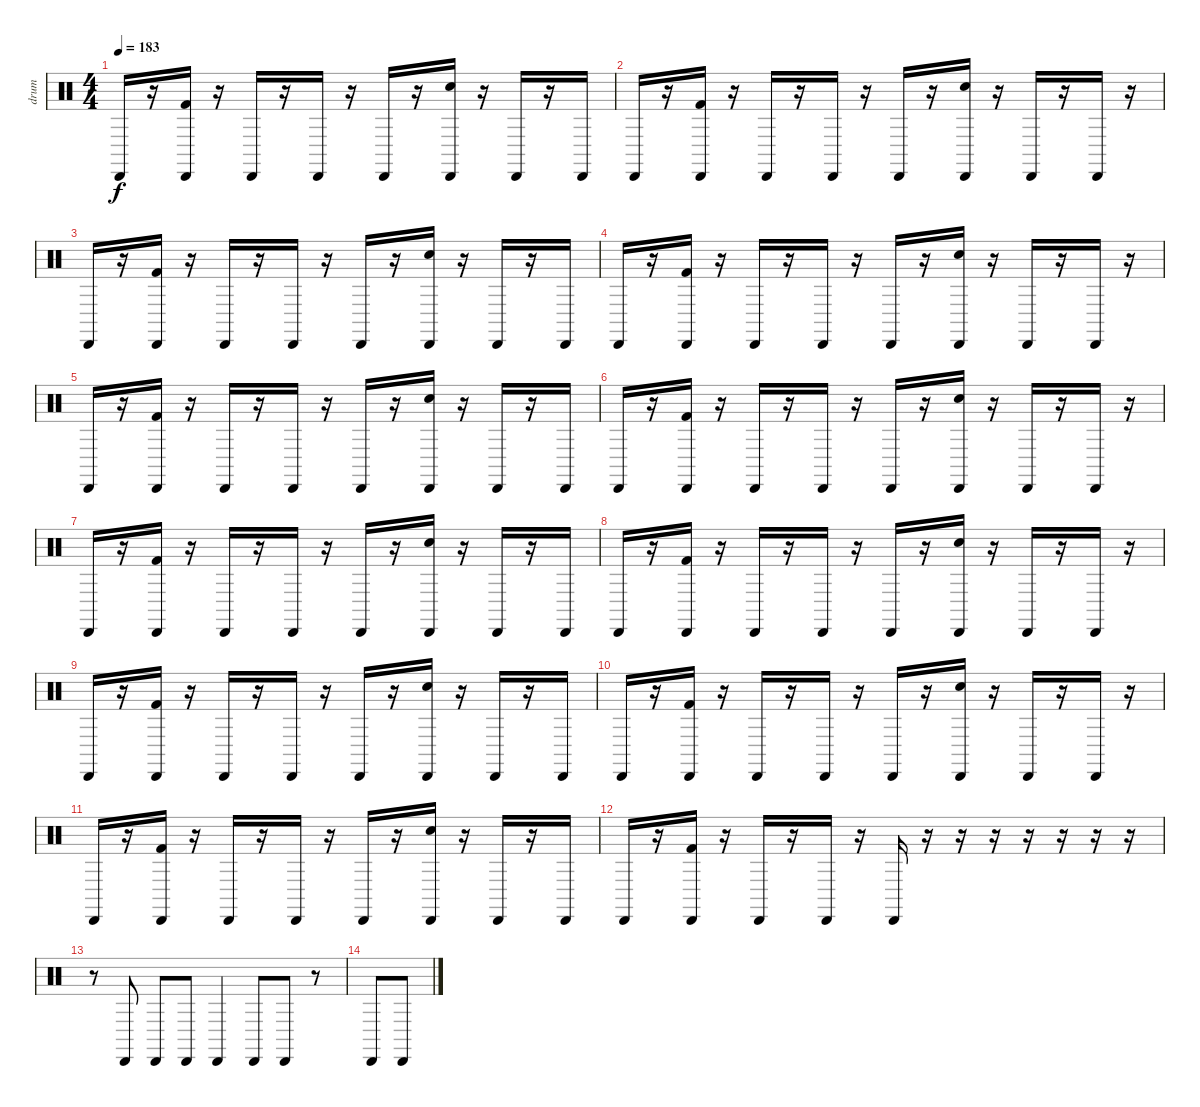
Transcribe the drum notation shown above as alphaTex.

\track ("drum" "drum") {instrument percussion}
\staff {score}
\articulation defaults
\ts (4 4)
\tempo 183
\clef neutral
\ks c "Cabasa (hit)".16{dy f}
r.16 ("Cabasa (hit)" "Kick (hit) 2").16 r.16 "Cabasa (hit)".16 r.16 "Cabasa (hit)".16 r.16 "Cabasa (hit)".16 r.16 ("Cabasa (hit)" "Snare (hit) 2").16 r.16 "Cabasa (hit)".16 r.16 "Cabasa (hit)".16 |
"Cabasa (hit)".16 r.16 ("Cabasa (hit)" "Kick (hit) 2").16 r.16 "Cabasa (hit)".16 r.16 "Cabasa (hit)".16 r.16 "Cabasa (hit)".16 r.16 ("Cabasa (hit)" "Snare (hit) 2").16 r.16 "Cabasa (hit)".16 r.16 "Cabasa (hit)".16 r.16 |
"Cabasa (hit)".16 r.16 ("Cabasa (hit)" "Kick (hit) 2").16 r.16 "Cabasa (hit)".16 r.16 "Cabasa (hit)".16 r.16 "Cabasa (hit)".16 r.16 ("Cabasa (hit)" "Snare (hit) 2").16 r.16 "Cabasa (hit)".16 r.16 "Cabasa (hit)".16 |
"Cabasa (hit)".16 r.16 ("Cabasa (hit)" "Kick (hit) 2").16 r.16 "Cabasa (hit)".16 r.16 "Cabasa (hit)".16 r.16 "Cabasa (hit)".16 r.16 ("Cabasa (hit)" "Snare (hit) 2").16 r.16 "Cabasa (hit)".16 r.16 "Cabasa (hit)".16 r.16 |
"Cabasa (hit)".16 r.16 ("Cabasa (hit)" "Kick (hit) 2").16 r.16 "Cabasa (hit)".16 r.16 "Cabasa (hit)".16 r.16 "Cabasa (hit)".16 r.16 ("Cabasa (hit)" "Snare (hit) 2").16 r.16 "Cabasa (hit)".16 r.16 "Cabasa (hit)".16 |
"Cabasa (hit)".16 r.16 ("Cabasa (hit)" "Kick (hit) 2").16 r.16 "Cabasa (hit)".16 r.16 "Cabasa (hit)".16 r.16 "Cabasa (hit)".16 r.16 ("Cabasa (hit)" "Snare (hit) 2").16 r.16 "Cabasa (hit)".16 r.16 "Cabasa (hit)".16 r.16 |
"Cabasa (hit)".16 r.16 ("Cabasa (hit)" "Kick (hit) 2").16 r.16 "Cabasa (hit)".16 r.16 "Cabasa (hit)".16 r.16 "Cabasa (hit)".16 r.16 ("Cabasa (hit)" "Snare (hit) 2").16 r.16 "Cabasa (hit)".16 r.16 "Cabasa (hit)".16 |
"Cabasa (hit)".16 r.16 ("Cabasa (hit)" "Kick (hit) 2").16 r.16 "Cabasa (hit)".16 r.16 "Cabasa (hit)".16 r.16 "Cabasa (hit)".16 r.16 ("Cabasa (hit)" "Snare (hit) 2").16 r.16 "Cabasa (hit)".16 r.16 "Cabasa (hit)".16 r.16 |
"Cabasa (hit)".16 r.16 ("Cabasa (hit)" "Kick (hit) 2").16 r.16 "Cabasa (hit)".16 r.16 "Cabasa (hit)".16 r.16 "Cabasa (hit)".16 r.16 ("Cabasa (hit)" "Snare (hit) 2").16 r.16 "Cabasa (hit)".16 r.16 "Cabasa (hit)".16 |
"Cabasa (hit)".16 r.16 ("Cabasa (hit)" "Kick (hit) 2").16 r.16 "Cabasa (hit)".16 r.16 "Cabasa (hit)".16 r.16 "Cabasa (hit)".16 r.16 ("Cabasa (hit)" "Snare (hit) 2").16 r.16 "Cabasa (hit)".16 r.16 "Cabasa (hit)".16 r.16 |
"Cabasa (hit)".16 r.16 ("Cabasa (hit)" "Kick (hit) 2").16 r.16 "Cabasa (hit)".16 r.16 "Cabasa (hit)".16 r.16 "Cabasa (hit)".16 r.16 ("Cabasa (hit)" "Snare (hit) 2").16 r.16 "Cabasa (hit)".16 r.16 "Cabasa (hit)".16 |
"Cabasa (hit)".16 r.16 ("Cabasa (hit)" "Kick (hit) 2").16 r.16 "Cabasa (hit)".16 r.16 "Cabasa (hit)".16 r.16 "Cabasa (hit)".16 r.16 r.16 r.16 r.16 r.16 r.16 r.16 |
r.8 "Cabasa (hit)".8 "Cabasa (hit)".8 "Cabasa (hit)".8 "Cabasa (hit)".4 "Cabasa (hit)".8 "Cabasa (hit)".8 r.8 |
"Cabasa (hit)".8 "Cabasa (hit)".8
